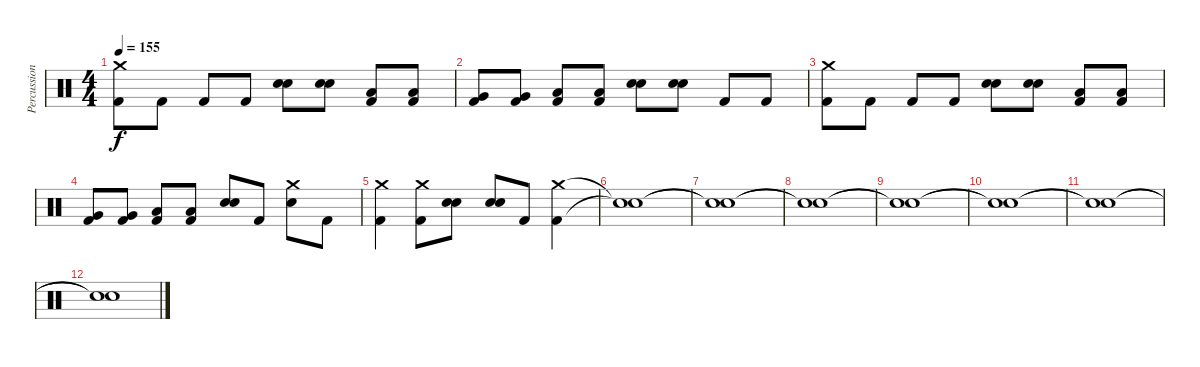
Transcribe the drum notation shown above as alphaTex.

\track ("Percussion" "Percussion") {instrument percussion}
\staff {score}
\articulation defaults
\ts (4 4)
\tempo 155
\clef neutral
\ks c
("Crash medium (hit)" "Kick (hit) 2").8{dy f} "Kick (hit) 2".8 "Kick (hit) 2".8 "Kick (hit) 2".8 ("Snare (hit) 2" "Electric Snare (hit)").8 ("Snare (hit) 2" "Electric Snare (hit)").8 ("Low Tom (hit)" "Kick (hit) 2").8 ("Low Tom (hit)" "Kick (hit) 2").8 |
("Very Low Tom (hit)" "Kick (hit) 2").8 ("Very Low Tom (hit)" "Kick (hit) 2").8 ("Low Floor Tom (hit)" "Kick (hit) 2").8 ("Low Floor Tom (hit)" "Kick (hit) 2").8 ("Snare (hit) 2" "Electric Snare (hit)").8 ("Snare (hit) 2" "Electric Snare (hit)").8 "Kick (hit) 2".8 "Kick (hit) 2".8 |
("Crash medium (hit)" "Kick (hit) 2").8 "Kick (hit) 2".8 "Kick (hit) 2".8 "Kick (hit) 2".8 ("Snare (hit) 2" "Electric Snare (hit)").8 ("Snare (hit) 2" "Electric Snare (hit)").8 ("Low Tom (hit)" "Kick (hit) 2").8 ("Low Tom (hit)" "Kick (hit) 2").8 |
("Very Low Tom (hit)" "Kick (hit) 2").8 ("Very Low Tom (hit)" "Kick (hit) 2").8 ("Low Floor Tom (hit)" "Kick (hit) 2").8 ("Low Floor Tom (hit)" "Kick (hit) 2").8 ("Snare (hit) 2" "Electric Snare (hit)").8 "Kick (hit) 2".8 ("Crash medium (hit)" "Electric Snare (hit)").8 "Kick (hit) 2".8 |
("Crash medium (hit)" "Kick (hit) 2").4 ("Crash medium (hit)" "Kick (hit) 2").8 ("Snare (hit) 2" "Electric Snare (hit)").8 ("Snare (hit) 2" "Electric Snare (hit)").8 "Kick (hit) 2".8 ("Crash medium (hit)" "Kick (hit) 2").4 |
("Snare (hit)"{t} "Snare (hit)"{t}).1 |
("Snare (hit)"{t} "Snare (hit)"{t}).1 |
("Snare (hit)"{t} "Snare (hit)"{t}).1 |
("Snare (hit)"{t} "Snare (hit)"{t}).1 |
("Snare (hit)"{t} "Snare (hit)"{t}).1 |
("Snare (hit)"{t} "Snare (hit)"{t}).1 |
("Snare (hit)"{t} "Snare (hit)"{t}).1
